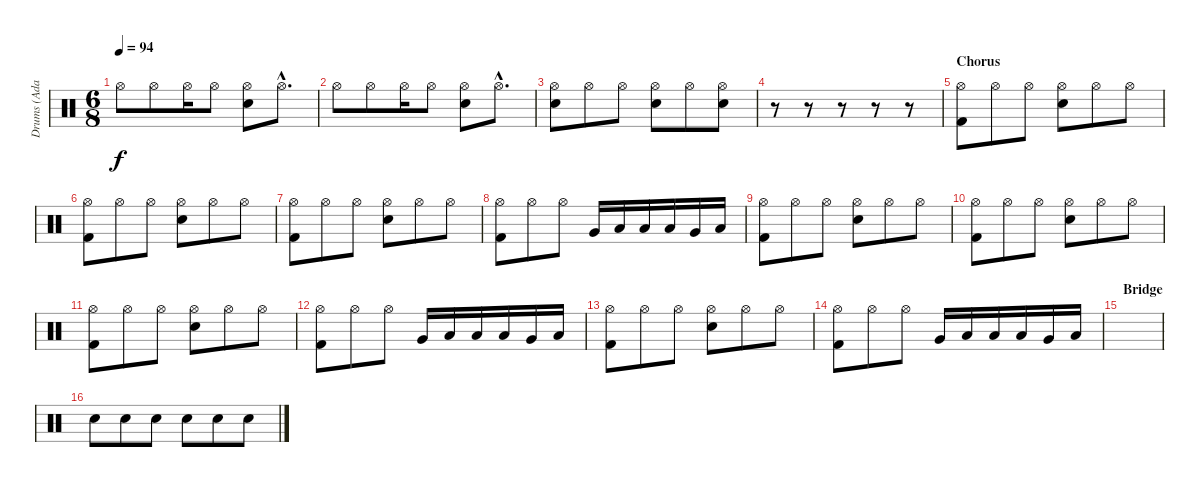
\track ("Drums (Adam)" "Drums (Ada") {instrument percussion}
\staff {score}
\articulation defaults
\ts (6 8)
\tempo 94
\clef neutral
\ks c "Hi-Hat (open)".8{dy f} "Hi-Hat (open)".8 "Hi-Hat (open)".16 "Hi-Hat (open)".8
("Hi-Hat (open)" "Snare (hit) 2").8 "Hi-Hat (open)"{hac}.8{d} |
"Hi-Hat (open)".8 "Hi-Hat (open)".8 "Hi-Hat (open)".16 "Hi-Hat (open)".8 ("Hi-Hat (open)" "Snare (hit) 2").8 "Hi-Hat (open)"{hac}.8{d} |
("Hi-Hat (open)" "Snare (hit) 2").8 "Hi-Hat (open)".8 "Hi-Hat (open)".8 ("Hi-Hat (open)" "Snare (hit) 2").8 "Hi-Hat (open)".8 ("Hi-Hat (open)" "Snare (hit) 2").8 |
r.8 r.8 r.8 r.8 r.8 |
\section ("" "Chorus")
("Hi-Hat (open)" "Kick (hit) 2").8 "Hi-Hat (open)".8 "Hi-Hat (open)".8 ("Hi-Hat (open)" "Snare (hit) 2").8 "Hi-Hat (open)".8 "Hi-Hat (open)".8 |
("Hi-Hat (open)" "Kick (hit) 2").8 "Hi-Hat (open)".8 "Hi-Hat (open)".8 ("Hi-Hat (open)" "Snare (hit) 2").8 "Hi-Hat (open)".8 "Hi-Hat (open)".8 |
("Hi-Hat (open)" "Kick (hit) 2").8 "Hi-Hat (open)".8 "Hi-Hat (open)".8 ("Hi-Hat (open)" "Snare (hit) 2").8 "Hi-Hat (open)".8 "Hi-Hat (open)".8 |
("Hi-Hat (open)" "Kick (hit) 2").8 "Hi-Hat (open)".8 "Hi-Hat (open)".8 "Very Low Tom (hit)".16 "Low Floor Tom (hit)".16 "Low Tom (hit)".16 "Low Floor Tom (hit)".16 "Very Low Tom (hit)".16 "Low Floor Tom (hit)".16 |
("Hi-Hat (open)" "Kick (hit) 2").8 "Hi-Hat (open)".8 "Hi-Hat (open)".8 ("Hi-Hat (open)" "Snare (hit) 2").8 "Hi-Hat (open)".8 "Hi-Hat (open)".8 |
("Hi-Hat (open)" "Kick (hit) 2").8 "Hi-Hat (open)".8 "Hi-Hat (open)".8 ("Hi-Hat (open)" "Snare (hit) 2").8 "Hi-Hat (open)".8 "Hi-Hat (open)".8 |
("Hi-Hat (open)" "Kick (hit) 2").8 "Hi-Hat (open)".8 "Hi-Hat (open)".8 ("Hi-Hat (open)" "Snare (hit) 2").8 "Hi-Hat (open)".8 "Hi-Hat (open)".8 |
("Hi-Hat (open)" "Kick (hit) 2").8 "Hi-Hat (open)".8 "Hi-Hat (open)".8 "Very Low Tom (hit)".16 "Low Floor Tom (hit)".16 "Low Tom (hit)".16 "Low Floor Tom (hit)".16 "Very Low Tom (hit)".16 "Low Floor Tom (hit)".16 |
("Hi-Hat (open)" "Kick (hit) 2").8 "Hi-Hat (open)".8 "Hi-Hat (open)".8 ("Hi-Hat (open)" "Snare (hit) 2").8 "Hi-Hat (open)".8 "Hi-Hat (open)".8 |
("Hi-Hat (open)" "Kick (hit) 2").8 "Hi-Hat (open)".8 "Hi-Hat (open)".8 "Very Low Tom (hit)".16 "Low Floor Tom (hit)".16 "Low Tom (hit)".16 "Low Floor Tom (hit)".16 "Very Low Tom (hit)".16 "Low Floor Tom (hit)".16 |
\section ("" "Bridge")
|
"Snare (hit) 2".8 "Snare (hit) 2".8 "Snare (hit) 2".8 "Snare (hit) 2".8 "Snare (hit) 2".8 "Snare (hit) 2".8
